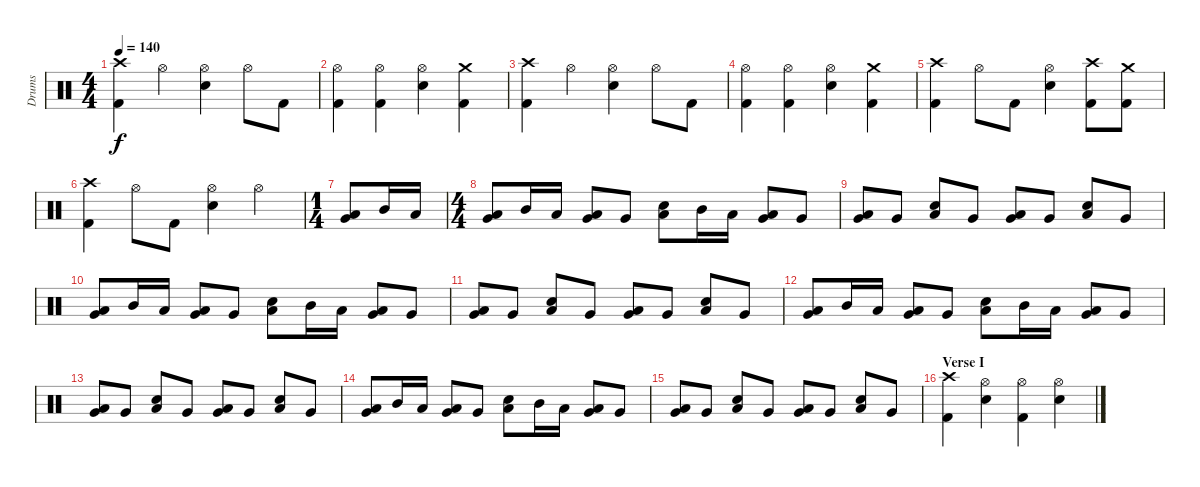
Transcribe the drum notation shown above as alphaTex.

\track ("Drums" "Drums") {instrument percussion}
\staff {score}
\articulation defaults
\ts (4 4)
\tempo 140
\clef neutral
\ks c
("Crash high (hit)" "Kick (hit) 2").4{dy f} "Hi-Hat (open)".4 ("Hi-Hat (open)" "Electric Snare (hit)").4 "Hi-Hat (open)".8 "Kick (hit) 2".8 |
("Hi-Hat (open)" "Kick (hit) 2").4 ("Hi-Hat (open)" "Kick (hit) 2").4 ("Hi-Hat (open)" "Electric Snare (hit)").4 ("Crash medium (hit)" "Kick (hit) 2").4 |
("Crash high (hit)" "Kick (hit) 2").4 "Hi-Hat (open)".4 ("Hi-Hat (open)" "Electric Snare (hit)").4 "Hi-Hat (open)".8 "Kick (hit) 2".8 |
("Hi-Hat (open)" "Kick (hit) 2").4 ("Hi-Hat (open)" "Kick (hit) 2").4 ("Hi-Hat (open)" "Electric Snare (hit)").4 ("Crash medium (hit)" "Kick (hit) 2").4 |
("Crash high (hit)" "Kick (hit) 2").4 "Hi-Hat (open)".8 "Kick (hit) 2".8 ("Hi-Hat (open)" "Electric Snare (hit)").4 ("Crash high (hit)" "Kick (hit) 2").8 ("Crash medium (hit)" "Kick (hit) 2").8 |
("Crash high (hit)" "Kick (hit) 2").4 "Hi-Hat (open)".8 "Kick (hit) 2".8 ("Hi-Hat (open)" "Electric Snare (hit)").4 "Hi-Hat (open)".4 |
\ts (1 4)
("Low Floor Tom (hit)" "Very Low Tom (hit)").8 "Mid Tom (hit)".16 "Low Tom (hit)".16 |
\ts (4 4)
("Low Floor Tom (hit)" "Very Low Tom (hit)").8 "Mid Tom (hit)".16 "Low Tom (hit)".16 ("Low Floor Tom (hit)" "Very Low Tom (hit)").8 "Very Low Tom (hit)".8 ("Low Floor Tom (hit)" "Electric Snare (hit)").8 "Mid Tom (hit)".16 "Low Tom (hit)".16 ("Low Floor Tom (hit)" "Very Low Tom (hit)").8 "Very Low Tom (hit)".8 |
("Low Floor Tom (hit)" "Very Low Tom (hit)").8 "Very Low Tom (hit)".8 ("Low Floor Tom (hit)" "Electric Snare (hit)").8 "Very Low Tom (hit)".8 ("Low Floor Tom (hit)" "Very Low Tom (hit)").8 "Very Low Tom (hit)".8 ("Low Floor Tom (hit)" "Electric Snare (hit)").8 "Very Low Tom (hit)".8 |
("Low Floor Tom (hit)" "Very Low Tom (hit)").8 "Mid Tom (hit)".16 "Low Tom (hit)".16 ("Low Floor Tom (hit)" "Very Low Tom (hit)").8 "Very Low Tom (hit)".8 ("Low Floor Tom (hit)" "Electric Snare (hit)").8 "Mid Tom (hit)".16 "Low Tom (hit)".16 ("Low Floor Tom (hit)" "Very Low Tom (hit)").8 "Very Low Tom (hit)".8 |
("Low Floor Tom (hit)" "Very Low Tom (hit)").8 "Very Low Tom (hit)".8 ("Low Floor Tom (hit)" "Electric Snare (hit)").8 "Very Low Tom (hit)".8 ("Low Floor Tom (hit)" "Very Low Tom (hit)").8 "Very Low Tom (hit)".8 ("Low Floor Tom (hit)" "Electric Snare (hit)").8 "Very Low Tom (hit)".8 |
("Low Floor Tom (hit)" "Very Low Tom (hit)").8 "Mid Tom (hit)".16 "Low Tom (hit)".16 ("Low Floor Tom (hit)" "Very Low Tom (hit)").8 "Very Low Tom (hit)".8 ("Low Floor Tom (hit)" "Electric Snare (hit)").8 "Mid Tom (hit)".16 "Low Tom (hit)".16 ("Low Floor Tom (hit)" "Very Low Tom (hit)").8 "Very Low Tom (hit)".8 |
("Low Floor Tom (hit)" "Very Low Tom (hit)").8 "Very Low Tom (hit)".8 ("Low Floor Tom (hit)" "Electric Snare (hit)").8 "Very Low Tom (hit)".8 ("Low Floor Tom (hit)" "Very Low Tom (hit)").8 "Very Low Tom (hit)".8 ("Low Floor Tom (hit)" "Electric Snare (hit)").8 "Very Low Tom (hit)".8 |
("Low Floor Tom (hit)" "Very Low Tom (hit)").8 "Mid Tom (hit)".16 "Low Tom (hit)".16 ("Low Floor Tom (hit)" "Very Low Tom (hit)").8 "Very Low Tom (hit)".8 ("Low Floor Tom (hit)" "Electric Snare (hit)").8 "Mid Tom (hit)".16 "Low Tom (hit)".16 ("Low Floor Tom (hit)" "Very Low Tom (hit)").8 "Very Low Tom (hit)".8 |
("Low Floor Tom (hit)" "Very Low Tom (hit)").8 "Very Low Tom (hit)".8 ("Low Floor Tom (hit)" "Electric Snare (hit)").8 "Very Low Tom (hit)".8 ("Low Floor Tom (hit)" "Very Low Tom (hit)").8 "Very Low Tom (hit)".8 ("Low Floor Tom (hit)" "Electric Snare (hit)").8 "Very Low Tom (hit)".8 |
\section ("" "Verse I")
("Crash high (hit)" "Kick (hit) 2").4 ("Hi-Hat (open)" "Electric Snare (hit)").4 ("Hi-Hat (open)" "Kick (hit) 2").4 ("Hi-Hat (open)" "Electric Snare (hit)").4
